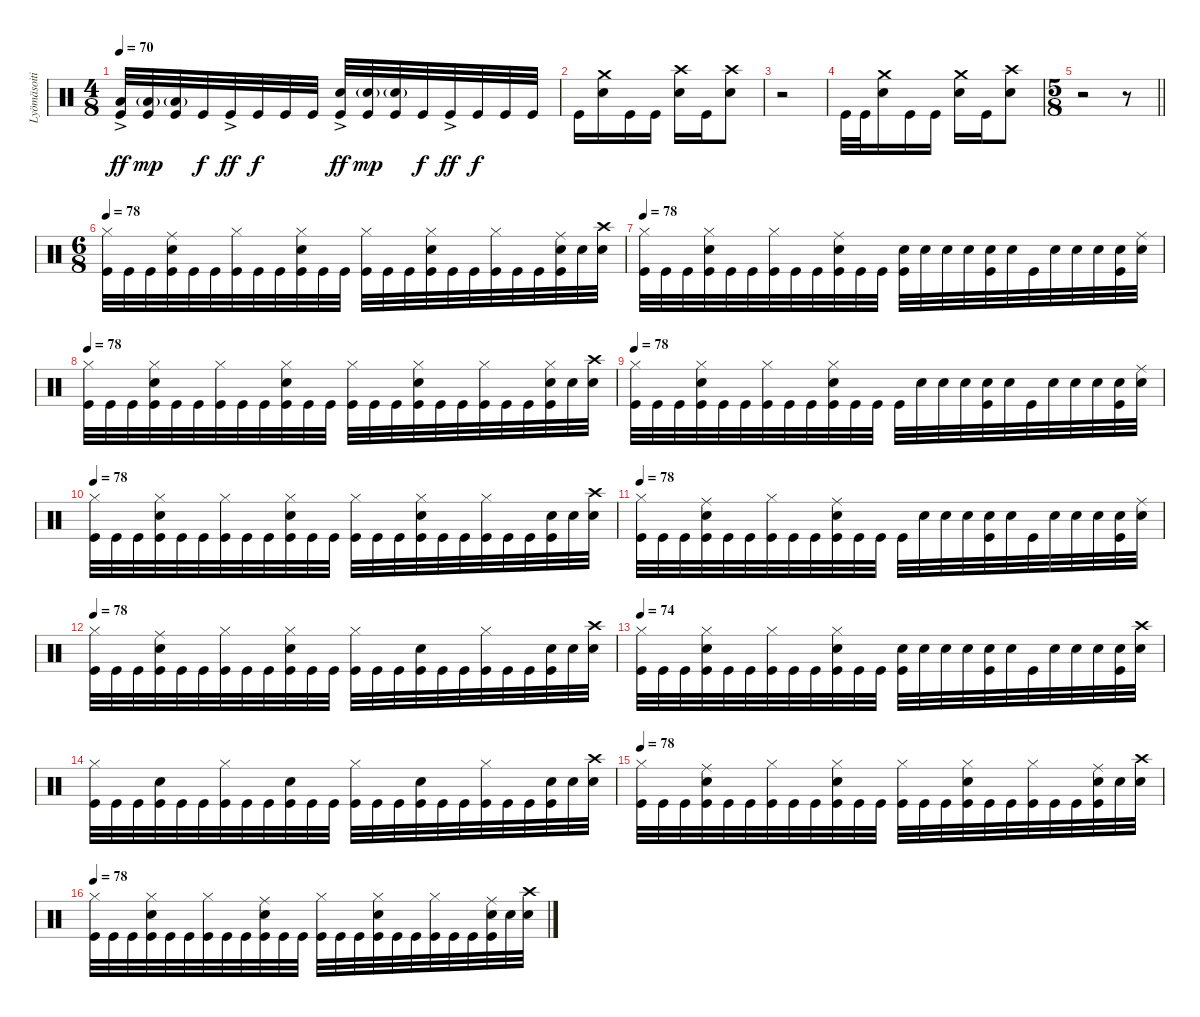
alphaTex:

\track ("Lyömäsoitin" "Lyömäsoiti") {instrument percussion}
\staff {score}
\articulation defaults
\ts (4 8)
\tempo 70
\clef neutral
\ks c
("Low Floor Tom (hit)" "Kick (hit)"{ac}).32{dy ff} ("Low Floor Tom (hit)"{g} "Kick (hit)").32{dy mp} ("Low Floor Tom (hit)"{g} "Kick (hit)").32 "Kick (hit)".32{dy f} "Kick (hit)"{ac}.32{dy ff} "Kick (hit)".32{dy f} "Kick (hit)".32 "Kick (hit)".32 ("Kick (hit)"{ac} "Snare (hit) 2").32{dy ff} ("Kick (hit)" "Snare (hit) 2"{g}).32{dy mp} ("Kick (hit)" "Snare (hit) 2"{g}).32 "Kick (hit)".32{dy f} "Kick (hit)"{ac}.32{dy ff} "Kick (hit)".32{dy f} "Kick (hit)".32 "Kick (hit)".32 |
"Kick (hit)".16 ("Snare (hit) 2" "Crash medium (hit)").16 "Kick (hit)".16 "Kick (hit)".16 ("Snare (hit) 2" "Crash high (hit)").16 "Kick (hit)".16 ("Crash high (hit)" "Snare (hit) 2").8 |
r.2 |
"Kick (hit)".32 "Kick (hit)".32 ("Snare (hit) 2" "Crash medium (hit)").16 "Kick (hit)".16 "Kick (hit)".16 ("Snare (hit) 2" "Crash medium (hit)").16 "Kick (hit)".16 ("Snare (hit) 2" "Crash high (hit)").8 |
\ts (5 8)
\barLineRight lightlight
r.2 r.8 |
\ts (6 8)
\tempo 78
("Kick (hit)" "Hi-Hat (closed)").32 "Kick (hit)".32 "Kick (hit)".32 ("Kick (hit)" "Snare (hit) 2" "Ride (middle)").32 "Kick (hit)".32 "Kick (hit)".32 ("Kick (hit)" "Hi-Hat (closed)").32 "Kick (hit)".32 "Kick (hit)".32 ("Kick (hit)" "Snare (hit) 2" "Hi-Hat (closed)").32 "Kick (hit)".32 "Kick (hit)".32 ("Kick (hit)" "Hi-Hat (closed)").32 "Kick (hit)".32 "Kick (hit)".32 ("Kick (hit)" "Snare (hit) 2" "Hi-Hat (closed)").32 "Kick (hit)".32 "Kick (hit)".32 ("Kick (hit)" "Hi-Hat (closed)").32 "Kick (hit)".32 "Kick (hit)".32 ("Kick (hit)" "Snare (hit) 2" "Ride (middle)").32 "Snare (hit) 2".32 ("Snare (hit) 2" "Crash high (hit)").32 |
\tempo 78
("Kick (hit)" "Hi-Hat (closed)").32 "Kick (hit)".32 "Kick (hit)".32 ("Kick (hit)" "Snare (hit) 2" "Hi-Hat (closed)").32 "Kick (hit)".32 "Kick (hit)".32 ("Kick (hit)" "Hi-Hat (closed)").32 "Kick (hit)".32 "Kick (hit)".32 ("Kick (hit)" "Snare (hit) 2" "Ride (middle)").32 "Kick (hit)".32 "Kick (hit)".32 ("Kick (hit)" "Snare (hit) 2").32 "Snare (hit) 2".32 "Snare (hit) 2".32 "Snare (hit) 2".32 ("Kick (hit)" "Snare (hit) 2").32 "Snare (hit) 2".32 "Kick (hit)".32 "Snare (hit) 2".32 "Snare (hit) 2".32 "Snare (hit) 2".32 ("Kick (hit)" "Snare (hit) 2").32 ("Snare (hit) 2" "Ride (middle)").32 |
\tempo 78
("Kick (hit)" "Hi-Hat (closed)").32 "Kick (hit)".32 "Kick (hit)".32 ("Kick (hit)" "Snare (hit) 2" "Hi-Hat (closed)").32 "Kick (hit)".32 "Kick (hit)".32 ("Kick (hit)" "Hi-Hat (closed)").32 "Kick (hit)".32 "Kick (hit)".32 ("Kick (hit)" "Snare (hit) 2" "Hi-Hat (closed)").32 "Kick (hit)".32 "Kick (hit)".32 ("Kick (hit)" "Hi-Hat (closed)").32 "Kick (hit)".32 "Kick (hit)".32 ("Kick (hit)" "Snare (hit) 2" "Hi-Hat (closed)").32 "Kick (hit)".32 "Kick (hit)".32 ("Kick (hit)" "Hi-Hat (closed)").32 "Kick (hit)".32 "Kick (hit)".32 ("Kick (hit)" "Snare (hit) 2" "Hi-Hat (closed)").32 "Snare (hit) 2".32 ("Snare (hit) 2" "Crash high (hit)").32 |
\tempo 78
("Kick (hit)" "Hi-Hat (closed)").32 "Kick (hit)".32 "Kick (hit)".32 ("Kick (hit)" "Snare (hit) 2" "Hi-Hat (closed)").32 "Kick (hit)".32 "Kick (hit)".32 ("Kick (hit)" "Hi-Hat (closed)").32 "Kick (hit)".32 "Kick (hit)".32 ("Kick (hit)" "Snare (hit) 2" "Hi-Hat (closed)").32 "Kick (hit)".32 "Kick (hit)".32 "Kick (hit)".32 "Snare (hit) 2".32 "Snare (hit) 2".32 "Snare (hit) 2".32 ("Kick (hit)" "Snare (hit) 2").32 "Snare (hit) 2".32 "Kick (hit)".32 "Snare (hit) 2".32 "Snare (hit) 2".32 "Snare (hit) 2".32 ("Kick (hit)" "Snare (hit) 2").32 ("Snare (hit) 2" "Ride (middle)").32 |
\tempo 78
("Kick (hit)" "Hi-Hat (closed)").32 "Kick (hit)".32 "Kick (hit)".32 ("Kick (hit)" "Snare (hit) 2" "Hi-Hat (closed)").32 "Kick (hit)".32 "Kick (hit)".32 ("Kick (hit)" "Hi-Hat (closed)").32 "Kick (hit)".32 "Kick (hit)".32 ("Kick (hit)" "Snare (hit) 2" "Hi-Hat (closed)").32 "Kick (hit)".32 "Kick (hit)".32 ("Kick (hit)" "Hi-Hat (closed)").32 "Kick (hit)".32 "Kick (hit)".32 ("Kick (hit)" "Snare (hit) 2" "Hi-Hat (closed)").32 "Kick (hit)".32 "Kick (hit)".32 ("Kick (hit)" "Hi-Hat (closed)").32 "Kick (hit)".32 "Kick (hit)".32 ("Kick (hit)" "Snare (hit) 2").32 "Snare (hit) 2".32 ("Snare (hit) 2" "Crash high (hit)").32 |
\tempo 78
("Kick (hit)" "Hi-Hat (closed)").32 "Kick (hit)".32 "Kick (hit)".32 ("Kick (hit)" "Snare (hit) 2" "Ride (middle)").32 "Kick (hit)".32 "Kick (hit)".32 ("Kick (hit)" "Hi-Hat (closed)").32 "Kick (hit)".32 "Kick (hit)".32 ("Kick (hit)" "Snare (hit) 2" "Ride (middle)").32 "Kick (hit)".32 "Kick (hit)".32 "Kick (hit)".32 "Snare (hit) 2".32 "Snare (hit) 2".32 "Snare (hit) 2".32 ("Kick (hit)" "Snare (hit) 2").32 "Snare (hit) 2".32 "Kick (hit)".32 "Snare (hit) 2".32 "Snare (hit) 2".32 "Snare (hit) 2".32 ("Kick (hit)" "Snare (hit) 2").32 ("Snare (hit) 2" "Ride (middle)").32 |
\tempo 78
("Kick (hit)" "Hi-Hat (closed)").32 "Kick (hit)".32 "Kick (hit)".32 ("Kick (hit)" "Snare (hit) 2" "Ride (middle)").32 "Kick (hit)".32 "Kick (hit)".32 ("Kick (hit)" "Hi-Hat (closed)").32 "Kick (hit)".32 "Kick (hit)".32 ("Kick (hit)" "Snare (hit) 2" "Hi-Hat (closed)").32 "Kick (hit)".32 "Kick (hit)".32 ("Kick (hit)" "Hi-Hat (closed)").32 "Kick (hit)".32 "Kick (hit)".32 ("Kick (hit)" "Snare (hit) 2").32 "Kick (hit)".32 "Kick (hit)".32 ("Kick (hit)" "Hi-Hat (closed)").32 "Kick (hit)".32 "Kick (hit)".32 ("Kick (hit)" "Snare (hit) 2").32 "Snare (hit) 2".32 ("Snare (hit) 2" "Crash high (hit)").32 |
\tempo 74
("Kick (hit)" "Hi-Hat (closed)").32 "Kick (hit)".32 "Kick (hit)".32 ("Kick (hit)" "Snare (hit) 2" "Hi-Hat (closed)").32 "Kick (hit)".32 "Kick (hit)".32 ("Kick (hit)" "Hi-Hat (closed)").32 "Kick (hit)".32 "Kick (hit)".32 ("Kick (hit)" "Snare (hit) 2" "Hi-Hat (closed)").32 "Kick (hit)".32 "Kick (hit)".32 ("Kick (hit)" "Snare (hit) 2").32 "Snare (hit) 2".32 "Snare (hit) 2".32 "Snare (hit) 2".32 ("Kick (hit)" "Snare (hit) 2").32 "Snare (hit) 2".32 "Kick (hit)".32 "Snare (hit) 2".32 "Snare (hit) 2".32 "Snare (hit) 2".32 ("Kick (hit)" "Snare (hit) 2").32 ("Snare (hit) 2" "Crash high (hit)").32 |
("Kick (hit)" "Hi-Hat (closed)").32 "Kick (hit)".32 "Kick (hit)".32 ("Kick (hit)" "Snare (hit) 2").32 "Kick (hit)".32 "Kick (hit)".32 ("Kick (hit)" "Hi-Hat (closed)").32 "Kick (hit)".32 "Kick (hit)".32 ("Kick (hit)" "Snare (hit) 2").32 "Kick (hit)".32 "Kick (hit)".32 ("Kick (hit)" "Hi-Hat (closed)").32 "Kick (hit)".32 "Kick (hit)".32 ("Kick (hit)" "Snare (hit) 2").32 "Kick (hit)".32 "Kick (hit)".32 ("Kick (hit)" "Hi-Hat (closed)").32 "Kick (hit)".32 "Kick (hit)".32 ("Kick (hit)" "Snare (hit) 2").32 "Snare (hit) 2".32 ("Snare (hit) 2" "Crash high (hit)").32 |
\tempo 78
("Kick (hit)" "Hi-Hat (closed)").32 "Kick (hit)".32 "Kick (hit)".32 ("Kick (hit)" "Snare (hit) 2" "Ride (middle)").32 "Kick (hit)".32 "Kick (hit)".32 ("Kick (hit)" "Hi-Hat (closed)").32 "Kick (hit)".32 "Kick (hit)".32 ("Kick (hit)" "Snare (hit) 2" "Hi-Hat (closed)").32 "Kick (hit)".32 "Kick (hit)".32 ("Kick (hit)" "Hi-Hat (closed)").32 "Kick (hit)".32 "Kick (hit)".32 ("Kick (hit)" "Snare (hit) 2" "Hi-Hat (closed)").32 "Kick (hit)".32 "Kick (hit)".32 ("Kick (hit)" "Hi-Hat (closed)").32 "Kick (hit)".32 "Kick (hit)".32 ("Kick (hit)" "Snare (hit) 2" "Ride (middle)").32 "Snare (hit) 2".32 ("Snare (hit) 2" "Crash high (hit)").32 |
\tempo 78
("Kick (hit)" "Hi-Hat (closed)").32 "Kick (hit)".32 "Kick (hit)".32 ("Kick (hit)" "Snare (hit) 2" "Hi-Hat (closed)").32 "Kick (hit)".32 "Kick (hit)".32 ("Kick (hit)" "Hi-Hat (closed)").32 "Kick (hit)".32 "Kick (hit)".32 ("Kick (hit)" "Snare (hit) 2" "Ride (middle)").32 "Kick (hit)".32 "Kick (hit)".32 ("Kick (hit)" "Hi-Hat (closed)").32 "Kick (hit)".32 "Kick (hit)".32 ("Kick (hit)" "Snare (hit) 2" "Hi-Hat (closed)").32 "Kick (hit)".32 "Kick (hit)".32 ("Kick (hit)" "Hi-Hat (closed)").32 "Kick (hit)".32 "Kick (hit)".32 ("Kick (hit)" "Snare (hit) 2" "Ride (middle)").32 "Snare (hit) 2".32 ("Snare (hit) 2" "Crash high (hit)").32
